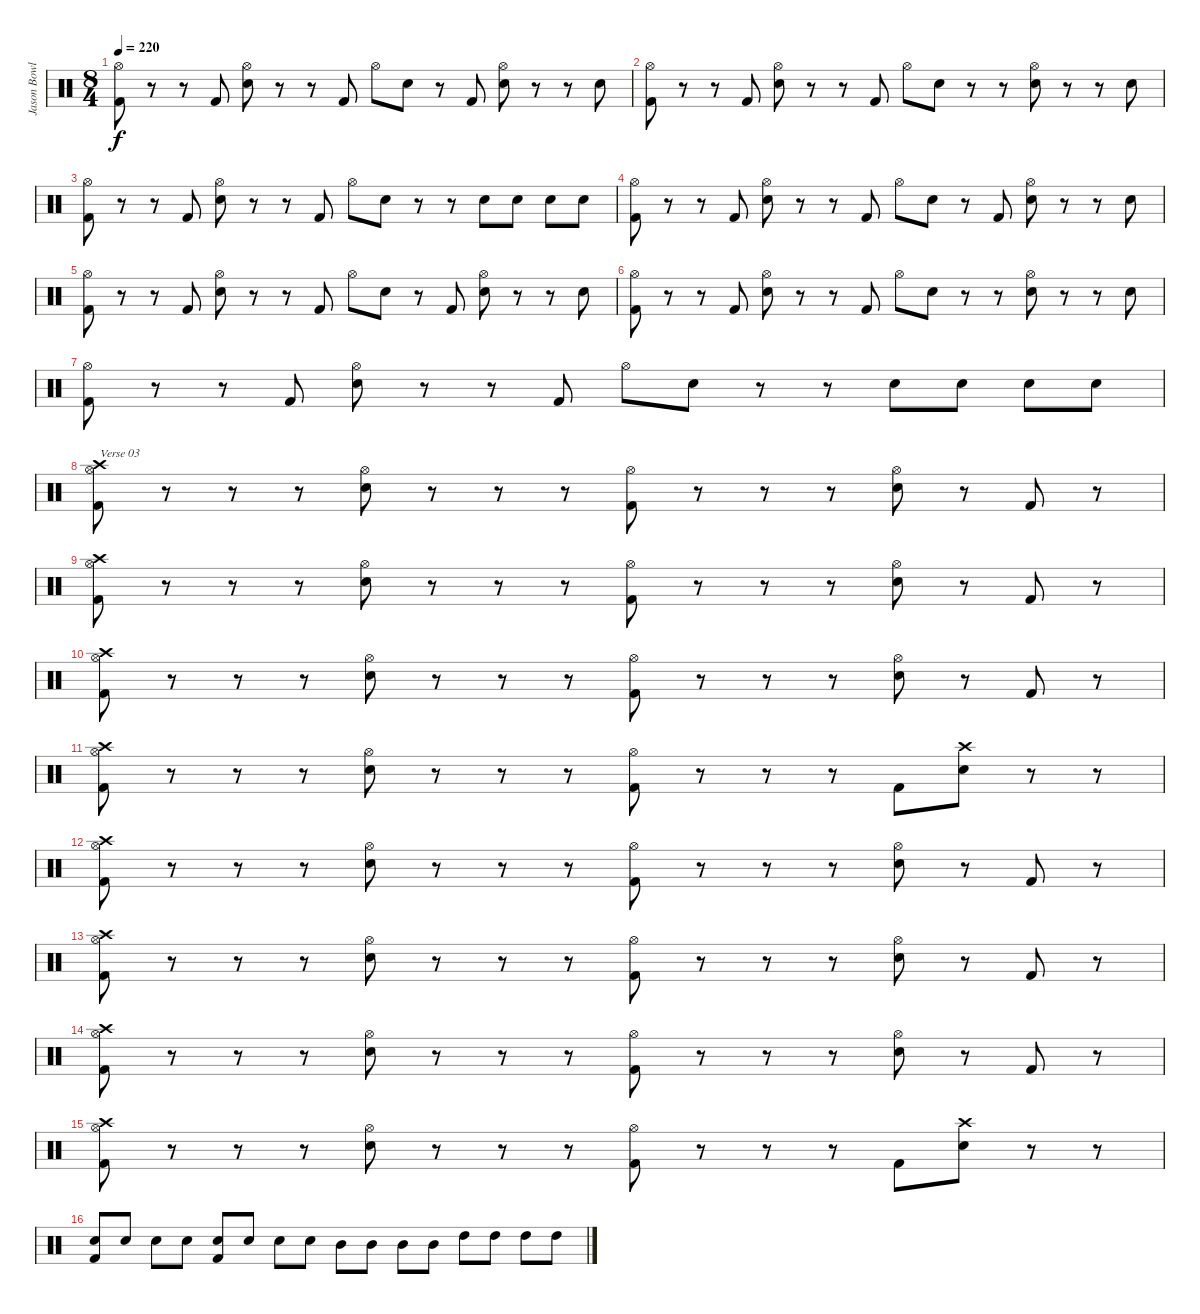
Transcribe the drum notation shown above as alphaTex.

\track ("Jason Bowld" "Jason Bowl") {instrument percussion}
\staff {score}
\articulation defaults
\ts (8 4)
\tempo 220
\clef neutral
\ks c
("Hi-Hat (open)" "Kick (hit) 2").8{dy f} r.8 r.8 "Kick (hit) 2".8 ("Hi-Hat (open)" "Snare (hit) 2").8 r.8 r.8 "Kick (hit) 2".8 "Hi-Hat (open)".8 "Snare (hit) 2".8 r.8 "Kick (hit) 2".8 ("Hi-Hat (open)" "Snare (hit) 2").8 r.8 r.8 "Snare (hit) 2".8 |
("Hi-Hat (open)" "Kick (hit) 2").8 r.8 r.8 "Kick (hit) 2".8 ("Hi-Hat (open)" "Snare (hit) 2").8 r.8 r.8 "Kick (hit) 2".8 "Hi-Hat (open)".8 "Snare (hit) 2".8 r.8 r.8 ("Hi-Hat (open)" "Snare (hit) 2").8 r.8 r.8 "Snare (hit) 2".8 |
("Hi-Hat (open)" "Kick (hit) 2").8 r.8 r.8 "Kick (hit) 2".8 ("Hi-Hat (open)" "Snare (hit) 2").8 r.8 r.8 "Kick (hit) 2".8 "Hi-Hat (open)".8 "Snare (hit) 2".8 r.8 r.8 "Snare (hit) 2".8 "Snare (hit) 2".8 "Snare (hit) 2".8 "Snare (hit) 2".8 |
("Hi-Hat (open)" "Kick (hit) 2").8 r.8 r.8 "Kick (hit) 2".8 ("Hi-Hat (open)" "Snare (hit) 2").8 r.8 r.8 "Kick (hit) 2".8 "Hi-Hat (open)".8 "Snare (hit) 2".8 r.8 "Kick (hit) 2".8 ("Hi-Hat (open)" "Snare (hit) 2").8 r.8 r.8 "Snare (hit) 2".8 |
("Hi-Hat (open)" "Kick (hit) 2").8 r.8 r.8 "Kick (hit) 2".8 ("Hi-Hat (open)" "Snare (hit) 2").8 r.8 r.8 "Kick (hit) 2".8 "Hi-Hat (open)".8 "Snare (hit) 2".8 r.8 "Kick (hit) 2".8 ("Hi-Hat (open)" "Snare (hit) 2").8 r.8 r.8 "Snare (hit) 2".8 |
("Hi-Hat (open)" "Kick (hit) 2").8 r.8 r.8 "Kick (hit) 2".8 ("Hi-Hat (open)" "Snare (hit) 2").8 r.8 r.8 "Kick (hit) 2".8 "Hi-Hat (open)".8 "Snare (hit) 2".8 r.8 r.8 ("Hi-Hat (open)" "Snare (hit) 2").8 r.8 r.8 "Snare (hit) 2".8 |
("Hi-Hat (open)" "Kick (hit) 2").8 r.8 r.8 "Kick (hit) 2".8 ("Hi-Hat (open)" "Snare (hit) 2").8 r.8 r.8 "Kick (hit) 2".8 "Hi-Hat (open)".8 "Snare (hit) 2".8 r.8 r.8 "Snare (hit) 2".8 "Snare (hit) 2".8 "Snare (hit) 2".8 "Snare (hit) 2".8 |
("Hi-Hat (open)" "Kick (hit) 2" "Crash high (hit)").8{txt "Verse 03"} r.8 r.8 r.8 ("Hi-Hat (open)" "Snare (hit) 2").8 r.8 r.8 r.8 ("Hi-Hat (open)" "Kick (hit) 2").8 r.8 r.8 r.8 ("Hi-Hat (open)" "Snare (hit) 2").8 r.8 "Kick (hit) 2".8 r.8 |
("Hi-Hat (open)" "Kick (hit) 2" "Crash high (hit)").8 r.8 r.8 r.8 ("Hi-Hat (open)" "Snare (hit) 2").8 r.8 r.8 r.8 ("Hi-Hat (open)" "Kick (hit) 2").8 r.8 r.8 r.8 ("Hi-Hat (open)" "Snare (hit) 2").8 r.8 "Kick (hit) 2".8 r.8 |
("Hi-Hat (open)" "Kick (hit) 2" "Crash high (hit)").8 r.8 r.8 r.8 ("Hi-Hat (open)" "Snare (hit) 2").8 r.8 r.8 r.8 ("Hi-Hat (open)" "Kick (hit) 2").8 r.8 r.8 r.8 ("Hi-Hat (open)" "Snare (hit) 2").8 r.8 "Kick (hit) 2".8 r.8 |
("Hi-Hat (open)" "Kick (hit) 2" "Crash high (hit)").8 r.8 r.8 r.8 ("Hi-Hat (open)" "Snare (hit) 2").8 r.8 r.8 r.8 ("Hi-Hat (open)" "Kick (hit) 2").8 r.8 r.8 r.8 "Kick (hit) 2".8 ("Snare (hit) 2" "Crash high (hit)").8 r.8 r.8 |
("Hi-Hat (open)" "Kick (hit) 2" "Crash high (hit)").8 r.8 r.8 r.8 ("Hi-Hat (open)" "Snare (hit) 2").8 r.8 r.8 r.8 ("Hi-Hat (open)" "Kick (hit) 2").8 r.8 r.8 r.8 ("Hi-Hat (open)" "Snare (hit) 2").8 r.8 "Kick (hit) 2".8 r.8 |
("Hi-Hat (open)" "Kick (hit) 2" "Crash high (hit)").8 r.8 r.8 r.8 ("Hi-Hat (open)" "Snare (hit) 2").8 r.8 r.8 r.8 ("Hi-Hat (open)" "Kick (hit) 2").8 r.8 r.8 r.8 ("Hi-Hat (open)" "Snare (hit) 2").8 r.8 "Kick (hit) 2".8 r.8 |
("Hi-Hat (open)" "Kick (hit) 2" "Crash high (hit)").8 r.8 r.8 r.8 ("Hi-Hat (open)" "Snare (hit) 2").8 r.8 r.8 r.8 ("Hi-Hat (open)" "Kick (hit) 2").8 r.8 r.8 r.8 ("Hi-Hat (open)" "Snare (hit) 2").8 r.8 "Kick (hit) 2".8 r.8 |
("Hi-Hat (open)" "Kick (hit) 2" "Crash high (hit)").8 r.8 r.8 r.8 ("Hi-Hat (open)" "Snare (hit) 2").8 r.8 r.8 r.8 ("Hi-Hat (open)" "Kick (hit) 2").8 r.8 r.8 r.8 "Kick (hit) 2".8 ("Snare (hit) 2" "Crash high (hit)").8 r.8 r.8 |
("Snare (hit) 2" "Kick (hit) 2").8 "Snare (hit) 2".8 "Snare (hit) 2".8 "Snare (hit) 2".8 ("Snare (hit) 2" "Kick (hit) 2").8 "Snare (hit) 2".8 "Snare (hit) 2".8 "Snare (hit) 2".8 "Mid Tom (hit)".8 "Mid Tom (hit)".8 "Mid Tom (hit)".8 "Mid Tom (hit)".8 "High Tom (hit)".8 "High Tom (hit)".8 "High Tom (hit)".8 "High Tom (hit)".8
